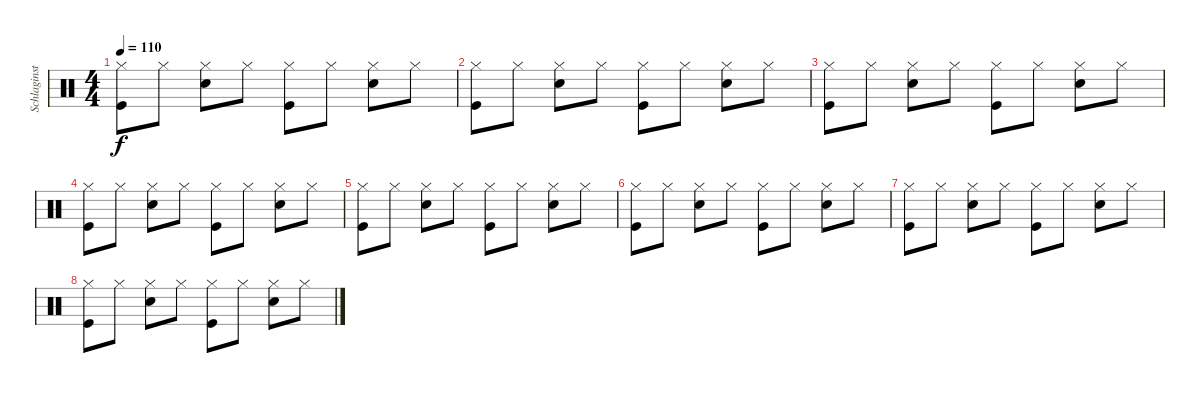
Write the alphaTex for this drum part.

\track ("Schlaginstrument" "Schlaginst") {instrument percussion}
\staff {score}
\articulation defaults
\ts (4 4)
\tempo 110
\clef neutral
\ks c
("Hi-Hat (closed)" "Kick (hit)").8{dy f} "Hi-Hat (closed)".8 ("Hi-Hat (closed)" "Snare (hit) 2").8 "Hi-Hat (closed)".8 ("Hi-Hat (closed)" "Kick (hit)").8 "Hi-Hat (closed)".8 ("Hi-Hat (closed)" "Snare (hit) 2").8 "Hi-Hat (closed)".8 |
("Hi-Hat (closed)" "Kick (hit)").8 "Hi-Hat (closed)".8 ("Hi-Hat (closed)" "Snare (hit) 2").8 "Hi-Hat (closed)".8 ("Hi-Hat (closed)" "Kick (hit)").8 "Hi-Hat (closed)".8 ("Hi-Hat (closed)" "Snare (hit) 2").8 "Hi-Hat (closed)".8 |
("Hi-Hat (closed)" "Kick (hit)").8 "Hi-Hat (closed)".8 ("Hi-Hat (closed)" "Snare (hit) 2").8 "Hi-Hat (closed)".8 ("Hi-Hat (closed)" "Kick (hit)").8 "Hi-Hat (closed)".8 ("Hi-Hat (closed)" "Snare (hit) 2").8 "Hi-Hat (closed)".8 |
("Hi-Hat (closed)" "Kick (hit)").8 "Hi-Hat (closed)".8 ("Hi-Hat (closed)" "Snare (hit) 2").8 "Hi-Hat (closed)".8 ("Hi-Hat (closed)" "Kick (hit)").8 "Hi-Hat (closed)".8 ("Hi-Hat (closed)" "Snare (hit) 2").8 "Hi-Hat (closed)".8 |
("Hi-Hat (closed)" "Kick (hit)").8 "Hi-Hat (closed)".8 ("Hi-Hat (closed)" "Snare (hit) 2").8 "Hi-Hat (closed)".8 ("Hi-Hat (closed)" "Kick (hit)").8 "Hi-Hat (closed)".8 ("Hi-Hat (closed)" "Snare (hit) 2").8 "Hi-Hat (closed)".8 |
("Hi-Hat (closed)" "Kick (hit)").8 "Hi-Hat (closed)".8 ("Hi-Hat (closed)" "Snare (hit) 2").8 "Hi-Hat (closed)".8 ("Hi-Hat (closed)" "Kick (hit)").8 "Hi-Hat (closed)".8 ("Hi-Hat (closed)" "Snare (hit) 2").8 "Hi-Hat (closed)".8 |
("Hi-Hat (closed)" "Kick (hit)").8 "Hi-Hat (closed)".8 ("Hi-Hat (closed)" "Snare (hit) 2").8 "Hi-Hat (closed)".8 ("Hi-Hat (closed)" "Kick (hit)").8 "Hi-Hat (closed)".8 ("Hi-Hat (closed)" "Snare (hit) 2").8 "Hi-Hat (closed)".8 |
("Hi-Hat (closed)" "Kick (hit)").8 "Hi-Hat (closed)".8 ("Hi-Hat (closed)" "Snare (hit) 2").8 "Hi-Hat (closed)".8 ("Hi-Hat (closed)" "Kick (hit)").8 "Hi-Hat (closed)".8 ("Hi-Hat (closed)" "Snare (hit) 2").8 "Hi-Hat (closed)".8
